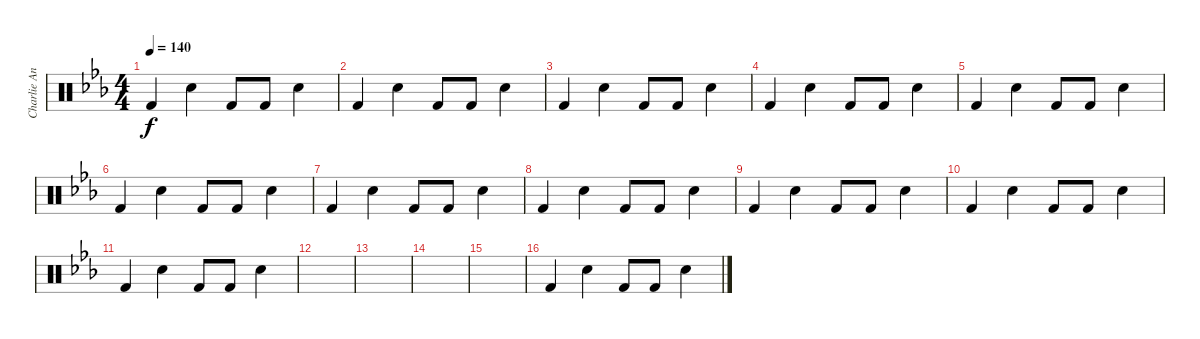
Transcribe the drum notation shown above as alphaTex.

\track ("Charlie Angel" "Charlie An") {instrument percussion}
\staff {score}
\articulation defaults
\ts (4 4)
\tempo 140
\clef neutral
\ks eb "Kick (hit) 2".4{dy f} "Electric Snare (hit)".4 "Kick (hit) 2".8 "Kick (hit) 2".8 "Electric Snare (hit)".4
|
"Kick (hit) 2".4 "Electric Snare (hit)".4 "Kick (hit) 2".8 "Kick (hit) 2".8 "Electric Snare (hit)".4 |
"Kick (hit) 2".4 "Electric Snare (hit)".4 "Kick (hit) 2".8 "Kick (hit) 2".8 "Electric Snare (hit)".4 |
"Kick (hit) 2".4 "Electric Snare (hit)".4 "Kick (hit) 2".8 "Kick (hit) 2".8 "Electric Snare (hit)".4 |
"Kick (hit) 2".4 "Electric Snare (hit)".4 "Kick (hit) 2".8 "Kick (hit) 2".8 "Electric Snare (hit)".4 |
"Kick (hit) 2".4 "Electric Snare (hit)".4 "Kick (hit) 2".8 "Kick (hit) 2".8 "Electric Snare (hit)".4 |
"Kick (hit) 2".4 "Electric Snare (hit)".4 "Kick (hit) 2".8 "Kick (hit) 2".8 "Electric Snare (hit)".4 |
"Kick (hit) 2".4 "Electric Snare (hit)".4 "Kick (hit) 2".8 "Kick (hit) 2".8 "Electric Snare (hit)".4 |
"Kick (hit) 2".4 "Electric Snare (hit)".4 "Kick (hit) 2".8 "Kick (hit) 2".8 "Electric Snare (hit)".4 |
"Kick (hit) 2".4 "Electric Snare (hit)".4 "Kick (hit) 2".8 "Kick (hit) 2".8 "Electric Snare (hit)".4 |
"Kick (hit) 2".4 "Electric Snare (hit)".4 "Kick (hit) 2".8 "Kick (hit) 2".8 "Electric Snare (hit)".4 |
|
|
|
|
"Kick (hit) 2".4 "Electric Snare (hit)".4 "Kick (hit) 2".8 "Kick (hit) 2".8 "Electric Snare (hit)".4
